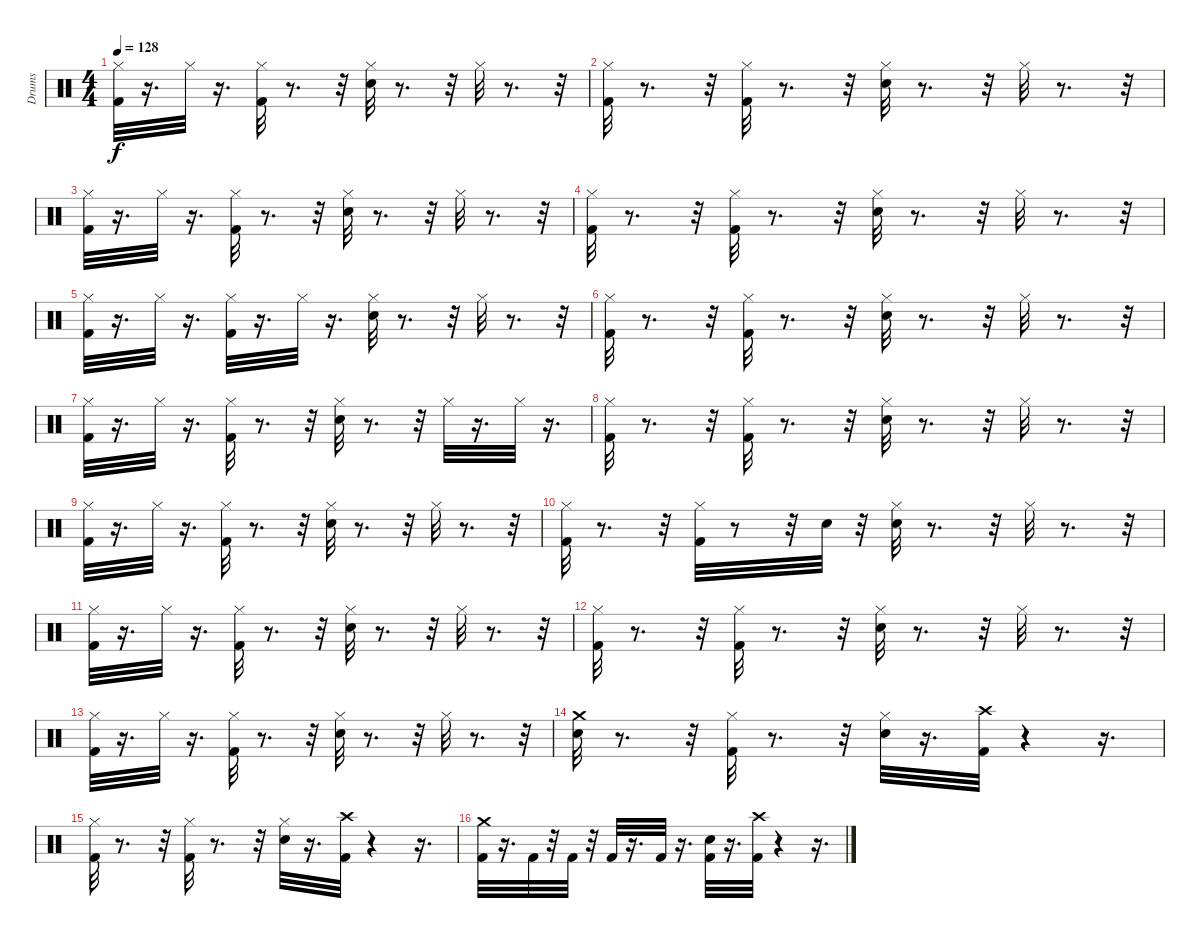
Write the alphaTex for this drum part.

\track ("Drums" "Drums") {instrument percussion}
\staff {score}
\articulation defaults
\ts (4 4)
\tempo 128
\clef neutral
\ks c
("Kick (hit) 2" "Hi-Hat (closed)").32{dy f} r.16{d} "Hi-Hat (closed)".32 r.16{d} ("Kick (hit) 2" "Hi-Hat (closed)").32 r.8{d} r.32 ("Snare (hit) 2" "Hi-Hat (closed)").32 r.8{d} r.32 "Hi-Hat (closed)".32 r.8{d} r.32 |
("Hi-Hat (closed)" "Kick (hit) 2").32 r.8{d} r.32 ("Hi-Hat (closed)" "Kick (hit) 2").32 r.8{d} r.32 ("Hi-Hat (closed)" "Snare (hit) 2").32 r.8{d} r.32 "Hi-Hat (closed)".32 r.8{d} r.32 |
("Kick (hit) 2" "Hi-Hat (closed)").32 r.16{d} "Hi-Hat (closed)".32 r.16{d} ("Kick (hit) 2" "Hi-Hat (closed)").32 r.8{d} r.32 ("Snare (hit) 2" "Hi-Hat (closed)").32 r.8{d} r.32 "Hi-Hat (closed)".32 r.8{d} r.32 |
("Hi-Hat (closed)" "Kick (hit) 2").32 r.8{d} r.32 ("Hi-Hat (closed)" "Kick (hit) 2").32 r.8{d} r.32 ("Hi-Hat (closed)" "Snare (hit) 2").32 r.8{d} r.32 "Hi-Hat (closed)".32 r.8{d} r.32 |
("Kick (hit) 2" "Hi-Hat (closed)").32 r.16{d} "Hi-Hat (closed)".32 r.16{d} ("Kick (hit) 2" "Hi-Hat (closed)").32 r.16{d} "Hi-Hat (closed)".32 r.16{d} ("Snare (hit) 2" "Hi-Hat (closed)").32 r.8{d} r.32 "Hi-Hat (closed)".32 r.8{d} r.32 |
("Hi-Hat (closed)" "Kick (hit) 2").32 r.8{d} r.32 ("Hi-Hat (closed)" "Kick (hit) 2").32 r.8{d} r.32 ("Hi-Hat (closed)" "Snare (hit) 2").32 r.8{d} r.32 "Hi-Hat (closed)".32 r.8{d} r.32 |
("Kick (hit) 2" "Hi-Hat (closed)").32 r.16{d} "Hi-Hat (closed)".32 r.16{d} ("Kick (hit) 2" "Hi-Hat (closed)").32 r.8{d} r.32 ("Snare (hit) 2" "Hi-Hat (closed)").32 r.8{d} r.32 "Hi-Hat (closed)".32 r.16{d} "Hi-Hat (closed)".32 r.16{d} |
("Hi-Hat (closed)" "Kick (hit) 2").32 r.8{d} r.32 ("Hi-Hat (closed)" "Kick (hit) 2").32 r.8{d} r.32 ("Hi-Hat (closed)" "Snare (hit) 2").32 r.8{d} r.32 "Hi-Hat (closed)".32 r.8{d} r.32 |
("Kick (hit) 2" "Hi-Hat (closed)").32 r.16{d} "Hi-Hat (closed)".32 r.16{d} ("Kick (hit) 2" "Hi-Hat (closed)").32 r.8{d} r.32 ("Snare (hit) 2" "Hi-Hat (closed)").32 r.8{d} r.32 "Hi-Hat (closed)".32 r.8{d} r.32 |
("Kick (hit) 2" "Hi-Hat (closed)").32 r.8{d} r.32 ("Kick (hit) 2" "Hi-Hat (closed)").32 r.8 r.32 "Snare (hit) 2".32 r.32 ("Snare (hit) 2" "Hi-Hat (closed)").32 r.8{d} r.32 "Hi-Hat (closed)".32 r.8{d} r.32 |
("Hi-Hat (closed)" "Kick (hit) 2").32 r.16{d} "Hi-Hat (closed)".32 r.16{d} ("Hi-Hat (closed)" "Kick (hit) 2").32 r.8{d} r.32 ("Hi-Hat (closed)" "Snare (hit) 2").32 r.8{d} r.32 "Hi-Hat (closed)".32 r.8{d} r.32 |
("Hi-Hat (closed)" "Kick (hit) 2").32 r.8{d} r.32 ("Hi-Hat (closed)" "Kick (hit) 2").32 r.8{d} r.32 ("Hi-Hat (closed)" "Snare (hit) 2").32 r.8{d} r.32 "Hi-Hat (closed)".32 r.8{d} r.32 |
("Kick (hit) 2" "Hi-Hat (closed)").32 r.16{d} "Hi-Hat (closed)".32 r.16{d} ("Kick (hit) 2" "Hi-Hat (closed)").32 r.8{d} r.32 ("Snare (hit) 2" "Hi-Hat (closed)").32 r.8{d} r.32 "Hi-Hat (closed)".32 r.8{d} r.32 |
("Snare (hit) 2" "Crash medium (hit)").32 r.8{d} r.32 ("Kick (hit) 2" "Hi-Hat (closed)").32 r.8{d} r.32 ("Snare (hit) 2" "Hi-Hat (closed)").32 r.16{d} ("Kick (hit) 2" "Crash high (hit)").32 r.4 r.16{d} |
("Kick (hit) 2" "Hi-Hat (closed)").32 r.8{d} r.32 ("Kick (hit) 2" "Hi-Hat (closed)").32 r.8{d} r.32 ("Snare (hit) 2" "Hi-Hat (closed)").32 r.16{d} ("Kick (hit) 2" "Crash high (hit)").32 r.4 r.16{d} |
("Kick (hit) 2" "Crash medium (hit)").32 r.16{d} "Kick (hit) 2".32 r.32 "Kick (hit) 2".32 r.32 "Kick (hit) 2".32 r.16{d} "Kick (hit) 2".32 r.16{d} ("Snare (hit) 2" "Kick (hit) 2").32 r.16{d} ("Kick (hit) 2" "Crash high (hit)").32 r.4 r.16{d}
